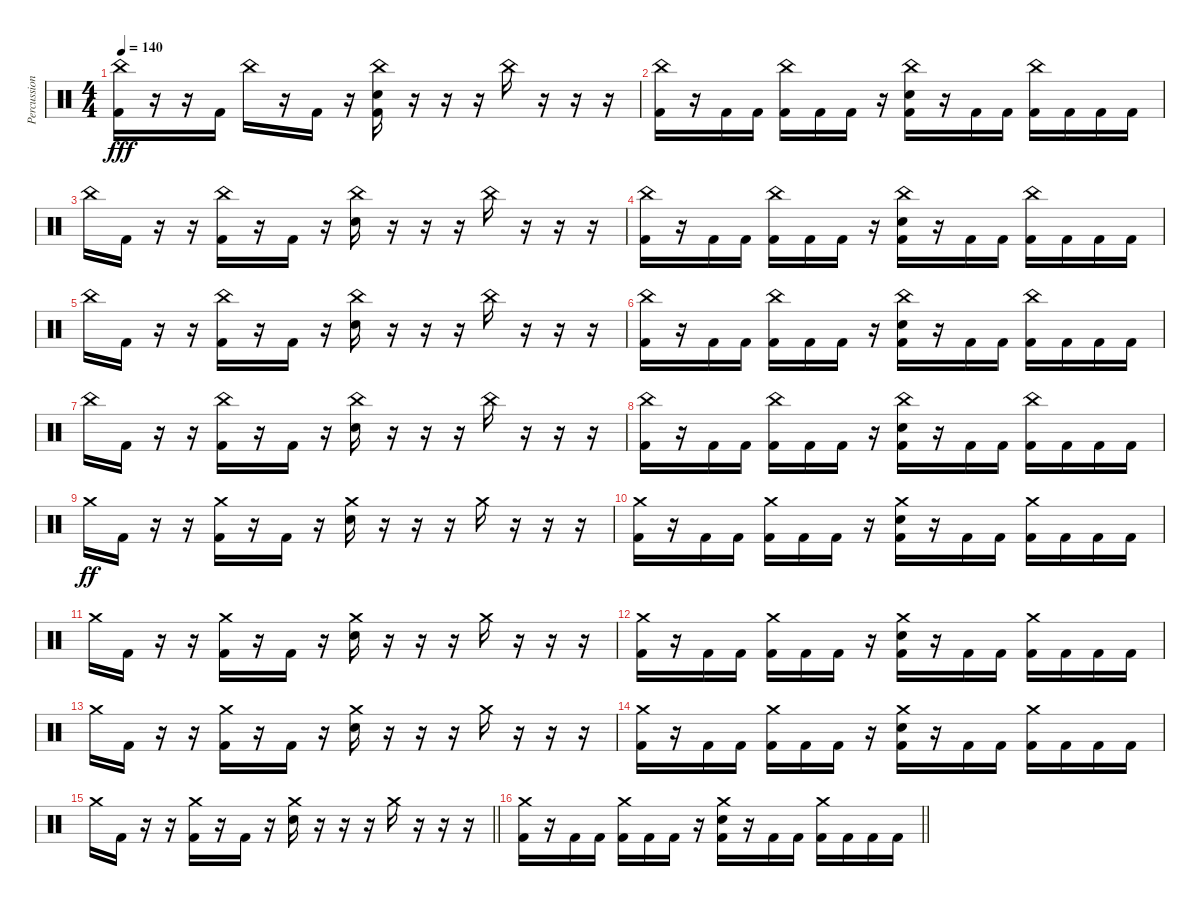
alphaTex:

\track ("Percussion" "Percussion") {instrument percussion}
\staff {score}
\articulation defaults
\ts (4 4)
\tempo 140
\clef neutral
\ks c
("China (hit)" "Kick (hit) 2").16{dy fff} r.16 r.16 "Kick (hit) 2".16 "China (hit)".16 r.16 "Kick (hit) 2".16 r.16 ("China (hit)" "Electric Snare (hit)" "Kick (hit) 2").16 r.16 r.16 r.16 "China (hit)".16 r.16 r.16 r.16 |
("China (hit)" "Kick (hit) 2").16 r.16 "Kick (hit) 2".16 "Kick (hit) 2".16 ("China (hit)" "Kick (hit) 2").16 "Kick (hit) 2".16 "Kick (hit) 2".16 r.16 ("China (hit)" "Electric Snare (hit)" "Kick (hit) 2").16 r.16 "Kick (hit) 2".16 "Kick (hit) 2".16 ("China (hit)" "Kick (hit) 2").16 "Kick (hit) 2".16 "Kick (hit) 2".16 "Kick (hit) 2".16 |
"China (hit)".16 "Kick (hit) 2".16 r.16 r.16 ("China (hit)" "Kick (hit) 2").16 r.16 "Kick (hit) 2".16 r.16 ("China (hit)" "Electric Snare (hit)").16 r.16 r.16 r.16 "China (hit)".16 r.16 r.16 r.16 |
("China (hit)" "Kick (hit) 2").16 r.16 "Kick (hit) 2".16 "Kick (hit) 2".16 ("China (hit)" "Kick (hit) 2").16 "Kick (hit) 2".16 "Kick (hit) 2".16 r.16 ("China (hit)" "Electric Snare (hit)" "Kick (hit) 2").16 r.16 "Kick (hit) 2".16 "Kick (hit) 2".16 ("China (hit)" "Kick (hit) 2").16 "Kick (hit) 2".16 "Kick (hit) 2".16 "Kick (hit) 2".16 |
"China (hit)".16 "Kick (hit) 2".16 r.16 r.16 ("China (hit)" "Kick (hit) 2").16 r.16 "Kick (hit) 2".16 r.16 ("China (hit)" "Electric Snare (hit)").16 r.16 r.16 r.16 "China (hit)".16 r.16 r.16 r.16 |
("China (hit)" "Kick (hit) 2").16 r.16 "Kick (hit) 2".16 "Kick (hit) 2".16 ("China (hit)" "Kick (hit) 2").16 "Kick (hit) 2".16 "Kick (hit) 2".16 r.16 ("China (hit)" "Electric Snare (hit)" "Kick (hit) 2").16 r.16 "Kick (hit) 2".16 "Kick (hit) 2".16 ("China (hit)" "Kick (hit) 2").16 "Kick (hit) 2".16 "Kick (hit) 2".16 "Kick (hit) 2".16 |
"China (hit)".16 "Kick (hit) 2".16 r.16 r.16 ("China (hit)" "Kick (hit) 2").16 r.16 "Kick (hit) 2".16 r.16 ("China (hit)" "Electric Snare (hit)").16 r.16 r.16 r.16 "China (hit)".16 r.16 r.16 r.16 |
("China (hit)" "Kick (hit) 2").16 r.16 "Kick (hit) 2".16 "Kick (hit) 2".16 ("China (hit)" "Kick (hit) 2").16 "Kick (hit) 2".16 "Kick (hit) 2".16 r.16 ("China (hit)" "Electric Snare (hit)" "Kick (hit) 2").16 r.16 "Kick (hit) 2".16 "Kick (hit) 2".16 ("China (hit)" "Kick (hit) 2").16 "Kick (hit) 2".16 "Kick (hit) 2".16 "Kick (hit) 2".16 |
"Crash medium (hit)".16{dy ff} "Kick (hit) 2".16 r.16 r.16 ("Crash medium (hit)" "Kick (hit) 2").16 r.16 "Kick (hit) 2".16 r.16 ("Crash medium (hit)" "Electric Snare (hit)").16 r.16 r.16 r.16 "Crash medium (hit)".16 r.16 r.16 r.16 |
("Crash medium (hit)" "Kick (hit) 2").16 r.16 "Kick (hit) 2".16 "Kick (hit) 2".16 ("Crash medium (hit)" "Kick (hit) 2").16 "Kick (hit) 2".16 "Kick (hit) 2".16 r.16 ("Crash medium (hit)" "Electric Snare (hit)" "Kick (hit) 2").16 r.16 "Kick (hit) 2".16 "Kick (hit) 2".16 ("Crash medium (hit)" "Kick (hit) 2").16 "Kick (hit) 2".16 "Kick (hit) 2".16 "Kick (hit) 2".16 |
"Crash medium (hit)".16 "Kick (hit) 2".16 r.16 r.16 ("Crash medium (hit)" "Kick (hit) 2").16 r.16 "Kick (hit) 2".16 r.16 ("Crash medium (hit)" "Electric Snare (hit)").16 r.16 r.16 r.16 "Crash medium (hit)".16 r.16 r.16 r.16 |
("Crash medium (hit)" "Kick (hit) 2").16 r.16 "Kick (hit) 2".16 "Kick (hit) 2".16 ("Crash medium (hit)" "Kick (hit) 2").16 "Kick (hit) 2".16 "Kick (hit) 2".16 r.16 ("Crash medium (hit)" "Electric Snare (hit)" "Kick (hit) 2").16 r.16 "Kick (hit) 2".16 "Kick (hit) 2".16 ("Crash medium (hit)" "Kick (hit) 2").16 "Kick (hit) 2".16 "Kick (hit) 2".16 "Kick (hit) 2".16 |
"Crash medium (hit)".16 "Kick (hit) 2".16 r.16 r.16 ("Crash medium (hit)" "Kick (hit) 2").16 r.16 "Kick (hit) 2".16 r.16 ("Crash medium (hit)" "Electric Snare (hit)").16 r.16 r.16 r.16 "Crash medium (hit)".16 r.16 r.16 r.16 |
("Crash medium (hit)" "Kick (hit) 2").16 r.16 "Kick (hit) 2".16 "Kick (hit) 2".16 ("Crash medium (hit)" "Kick (hit) 2").16 "Kick (hit) 2".16 "Kick (hit) 2".16 r.16 ("Crash medium (hit)" "Electric Snare (hit)" "Kick (hit) 2").16 r.16 "Kick (hit) 2".16 "Kick (hit) 2".16 ("Crash medium (hit)" "Kick (hit) 2").16 "Kick (hit) 2".16 "Kick (hit) 2".16 "Kick (hit) 2".16 |
\barLineRight lightlight "Crash medium (hit)".16 "Kick (hit) 2".16
r.16 r.16 ("Crash medium (hit)" "Kick (hit) 2").16 r.16 "Kick (hit) 2".16 r.16 ("Crash medium (hit)" "Electric Snare (hit)").16 r.16 r.16 r.16 "Crash medium (hit)".16 r.16 r.16 r.16 |
\barLineRight lightlight
("Crash medium (hit)" "Kick (hit) 2").16 r.16 "Kick (hit) 2".16 "Kick (hit) 2".16 ("Crash medium (hit)" "Kick (hit) 2").16 "Kick (hit) 2".16 "Kick (hit) 2".16 r.16 ("Crash medium (hit)" "Electric Snare (hit)" "Kick (hit) 2").16 r.16 "Kick (hit) 2".16 "Kick (hit) 2".16 ("Crash medium (hit)" "Kick (hit) 2").16 "Kick (hit) 2".16 "Kick (hit) 2".16 "Kick (hit) 2".16
